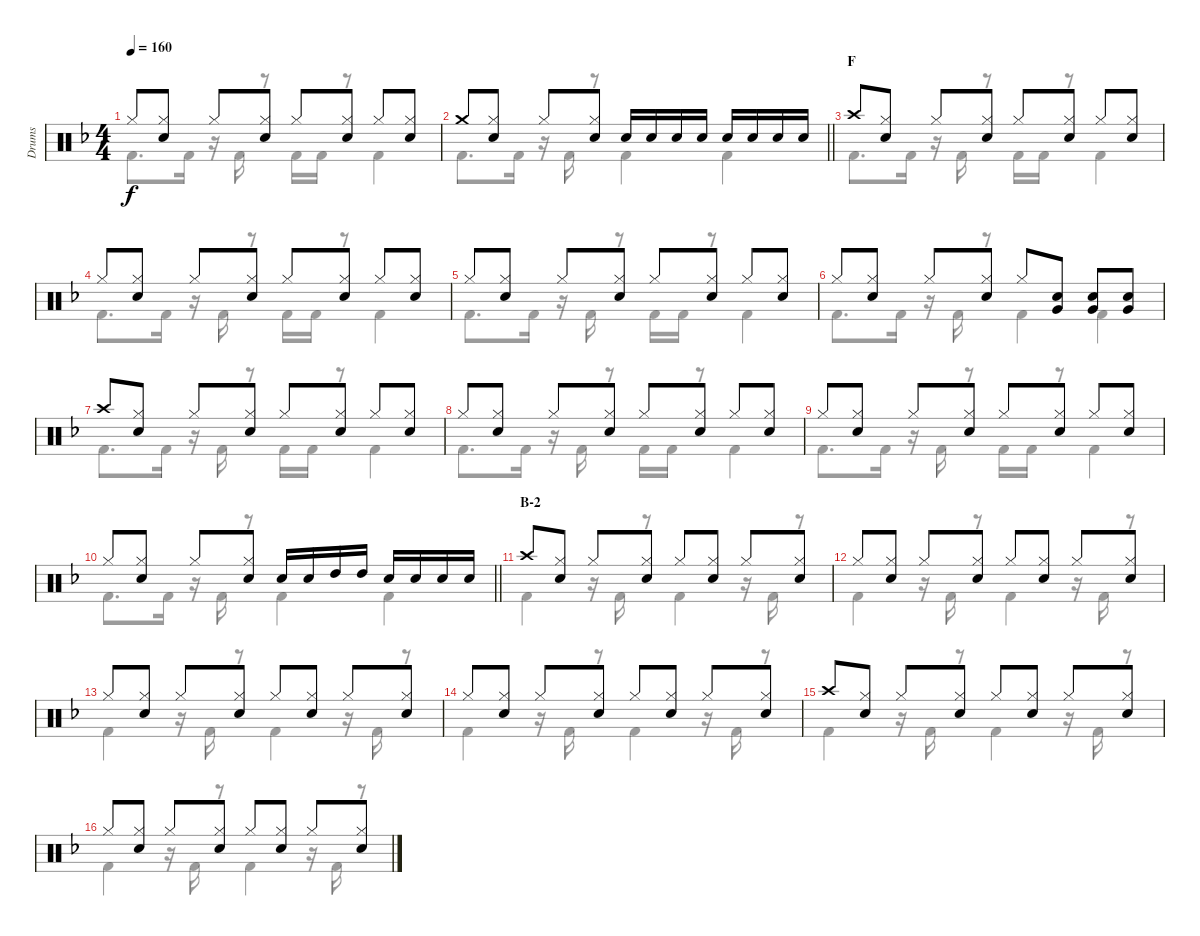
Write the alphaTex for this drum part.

\track ("Drums" "Drums") {instrument percussion}
\staff {score}
\articulation defaults
\voice
\ts (4 4)
\tempo 160
\clef neutral
\ks f "Hi-Hat (closed)".8{dy f}
("Hi-Hat (closed)" "Snare (hit) 2").8 "Hi-Hat (closed)".8 ("Hi-Hat (closed)" "Snare (hit) 2").8 "Hi-Hat (closed)".8 ("Hi-Hat (closed)" "Snare (hit) 2").8 "Hi-Hat (closed)".8 ("Hi-Hat (closed)" "Snare (hit) 2").8 |
\barLineRight lightlight "Crash medium (hit)".8
("Hi-Hat (closed)" "Snare (hit) 2").8 "Hi-Hat (closed)".8 ("Hi-Hat (closed)" "Snare (hit) 2").8 "Snare (hit) 2".16 "Snare (hit) 2".16 "Snare (hit) 2".16 "Snare (hit) 2".16 "Snare (hit) 2".16 "Snare (hit) 2".16 "Snare (hit) 2".16 "Snare (hit) 2".16 |
\section ("" "F")
"Crash high (hit)".8 ("Hi-Hat (closed)" "Snare (hit) 2").8 "Hi-Hat (closed)".8 ("Hi-Hat (closed)" "Snare (hit) 2").8 "Hi-Hat (closed)".8 ("Hi-Hat (closed)" "Snare (hit) 2").8 "Hi-Hat (closed)".8 ("Hi-Hat (closed)" "Snare (hit) 2").8 |
"Hi-Hat (closed)".8 ("Hi-Hat (closed)" "Snare (hit) 2").8 "Hi-Hat (closed)".8 ("Hi-Hat (closed)" "Snare (hit) 2").8 "Hi-Hat (closed)".8 ("Hi-Hat (closed)" "Snare (hit) 2").8 "Hi-Hat (closed)".8 ("Hi-Hat (closed)" "Snare (hit) 2").8 |
"Hi-Hat (closed)".8 ("Hi-Hat (closed)" "Snare (hit) 2").8 "Hi-Hat (closed)".8 ("Hi-Hat (closed)" "Snare (hit) 2").8 "Hi-Hat (closed)".8 ("Hi-Hat (closed)" "Snare (hit) 2").8 "Hi-Hat (closed)".8 ("Hi-Hat (closed)" "Snare (hit) 2").8 |
"Hi-Hat (closed)".8 ("Hi-Hat (closed)" "Snare (hit) 2").8 "Hi-Hat (closed)".8 ("Hi-Hat (closed)" "Snare (hit) 2").8 "Hi-Hat (closed)".8 ("Snare (hit) 2" "Very Low Tom (hit)").8 ("Snare (hit) 2" "Very Low Tom (hit)").8 ("Snare (hit) 2" "Very Low Tom (hit)").8 |
"Crash high (hit)".8 ("Hi-Hat (closed)" "Snare (hit) 2").8 "Hi-Hat (closed)".8 ("Hi-Hat (closed)" "Snare (hit) 2").8 "Hi-Hat (closed)".8 ("Hi-Hat (closed)" "Snare (hit) 2").8 "Hi-Hat (closed)".8 ("Hi-Hat (closed)" "Snare (hit) 2").8 |
"Hi-Hat (closed)".8 ("Hi-Hat (closed)" "Snare (hit) 2").8 "Hi-Hat (closed)".8 ("Hi-Hat (closed)" "Snare (hit) 2").8 "Hi-Hat (closed)".8 ("Hi-Hat (closed)" "Snare (hit) 2").8 "Hi-Hat (closed)".8 ("Hi-Hat (closed)" "Snare (hit) 2").8 |
"Hi-Hat (closed)".8 ("Hi-Hat (closed)" "Snare (hit) 2").8 "Hi-Hat (closed)".8 ("Hi-Hat (closed)" "Snare (hit) 2").8 "Hi-Hat (closed)".8 ("Hi-Hat (closed)" "Snare (hit) 2").8 "Hi-Hat (closed)".8 ("Hi-Hat (closed)" "Snare (hit) 2").8 |
\barLineRight lightlight "Hi-Hat (closed)".8
("Hi-Hat (closed)" "Snare (hit) 2").8 "Hi-Hat (closed)".8 ("Hi-Hat (closed)" "Snare (hit) 2").8 "Snare (hit) 2".16 "Snare (hit) 2".16 "High Tom (hit)".16 "High Tom (hit)".16 "Snare (hit) 2".16 "Snare (hit) 2".16 "Snare (hit) 2".16 "Snare (hit) 2".16 |
\section ("" "B-2")
"Crash high (hit)".8 ("Hi-Hat (closed)" "Snare (hit) 2").8 "Hi-Hat (closed)".8 ("Hi-Hat (closed)" "Snare (hit) 2").8 "Hi-Hat (closed)".8 ("Hi-Hat (closed)" "Snare (hit) 2").8 "Hi-Hat (closed)".8 ("Hi-Hat (closed)" "Snare (hit) 2").8 |
"Hi-Hat (closed)".8 ("Hi-Hat (closed)" "Snare (hit) 2").8 "Hi-Hat (closed)".8 ("Hi-Hat (closed)" "Snare (hit) 2").8 "Hi-Hat (closed)".8 ("Hi-Hat (closed)" "Snare (hit) 2").8 "Hi-Hat (closed)".8 ("Hi-Hat (closed)" "Snare (hit) 2").8 |
"Hi-Hat (closed)".8 ("Hi-Hat (closed)" "Snare (hit) 2").8 "Hi-Hat (closed)".8 ("Hi-Hat (closed)" "Snare (hit) 2").8 "Hi-Hat (closed)".8 ("Hi-Hat (closed)" "Snare (hit) 2").8 "Hi-Hat (closed)".8 ("Hi-Hat (closed)" "Snare (hit) 2").8 |
"Hi-Hat (closed)".8 ("Hi-Hat (closed)" "Snare (hit) 2").8 "Hi-Hat (closed)".8 ("Hi-Hat (closed)" "Snare (hit) 2").8 "Hi-Hat (closed)".8 ("Hi-Hat (closed)" "Snare (hit) 2").8 "Hi-Hat (closed)".8 ("Hi-Hat (closed)" "Snare (hit) 2").8 |
"Crash high (hit)".8 ("Hi-Hat (closed)" "Snare (hit) 2").8 "Hi-Hat (closed)".8 ("Hi-Hat (closed)" "Snare (hit) 2").8 "Hi-Hat (closed)".8 ("Hi-Hat (closed)" "Snare (hit) 2").8 "Hi-Hat (closed)".8 ("Hi-Hat (closed)" "Snare (hit) 2").8 |
"Hi-Hat (closed)".8 ("Hi-Hat (closed)" "Snare (hit) 2").8 "Hi-Hat (closed)".8 ("Hi-Hat (closed)" "Snare (hit) 2").8 "Hi-Hat (closed)".8 ("Hi-Hat (closed)" "Snare (hit) 2").8 "Hi-Hat (closed)".8 ("Hi-Hat (closed)" "Snare (hit) 2").8
\voice
\clef neutral
\ottava regular
\simile none
\ks f "Kick (hit) 2".8{d dy f} "Kick (hit) 2".16
r.16 "Kick (hit) 2".16 r.8 "Kick (hit) 2".16 "Kick (hit) 2".16 r.8 "Kick (hit) 2".4 |
\barLineRight lightlight "Kick (hit) 2".8{d} "Kick (hit) 2".16
r.16 "Kick (hit) 2".16 r.8 "Kick (hit) 2".4 "Kick (hit) 2".4 |
"Kick (hit) 2".8{d} "Kick (hit) 2".16 r.16 "Kick (hit) 2".16 r.8 "Kick (hit) 2".16 "Kick (hit) 2".16 r.8 "Kick (hit) 2".4 |
"Kick (hit) 2".8{d} "Kick (hit) 2".16 r.16 "Kick (hit) 2".16 r.8 "Kick (hit) 2".16 "Kick (hit) 2".16 r.8 "Kick (hit) 2".4 |
"Kick (hit) 2".8{d} "Kick (hit) 2".16 r.16 "Kick (hit) 2".16 r.8 "Kick (hit) 2".16 "Kick (hit) 2".16 r.8 "Kick (hit) 2".4 |
"Kick (hit) 2".8{d} "Kick (hit) 2".16 r.16 "Kick (hit) 2".16 r.8 "Kick (hit) 2".4 "Kick (hit) 2".4 |
"Kick (hit) 2".8{d} "Kick (hit) 2".16 r.16 "Kick (hit) 2".16 r.8 "Kick (hit) 2".16 "Kick (hit) 2".16 r.8 "Kick (hit) 2".4 |
"Kick (hit) 2".8{d} "Kick (hit) 2".16 r.16 "Kick (hit) 2".16 r.8 "Kick (hit) 2".16 "Kick (hit) 2".16 r.8 "Kick (hit) 2".4 |
"Kick (hit) 2".8{d} "Kick (hit) 2".16 r.16 "Kick (hit) 2".16 r.8 "Kick (hit) 2".16 "Kick (hit) 2".16 r.8 "Kick (hit) 2".4 |
\barLineRight lightlight "Kick (hit) 2".8{d} "Kick (hit) 2".16
r.16 "Kick (hit) 2".16 r.8 "Kick (hit) 2".4 "Kick (hit) 2".4 |
"Kick (hit) 2".4 r.16 "Kick (hit) 2".16 r.8 "Kick (hit) 2".4 r.16 "Kick (hit) 2".16 r.8 |
"Kick (hit) 2".4 r.16 "Kick (hit) 2".16 r.8 "Kick (hit) 2".4 r.16 "Kick (hit) 2".16 r.8 |
"Kick (hit) 2".4 r.16 "Kick (hit) 2".16 r.8 "Kick (hit) 2".4 r.16 "Kick (hit) 2".16 r.8 |
"Kick (hit) 2".4 r.16 "Kick (hit) 2".16 r.8 "Kick (hit) 2".4 r.16 "Kick (hit) 2".16 r.8 |
"Kick (hit) 2".4 r.16 "Kick (hit) 2".16 r.8 "Kick (hit) 2".4 r.16 "Kick (hit) 2".16 r.8 |
"Kick (hit) 2".4 r.16 "Kick (hit) 2".16 r.8 "Kick (hit) 2".4 r.16 "Kick (hit) 2".16 r.8
